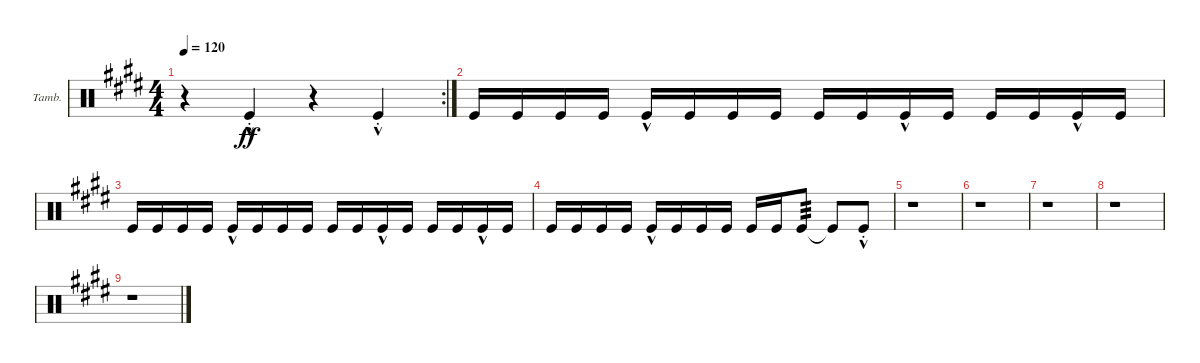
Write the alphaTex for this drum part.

\defaultSystemsLayout 4
\bracketExtendMode groupsimilarinstruments
\firstSystemTrackNameOrientation horizontal
\otherSystemsTrackNameOrientation horizontal
\track ("Tambourine" "Tamb.") {instrument percussion}
\staff {score}
\articulation defaults
\rc 2
\ts (4 4)
\tempo 120
\clef neutral
\scale
0.355932
\ks e
r.4{dy ff} "Kick (hit)"{hac st}.4 r.4 "Kick (hit)"{hac st}.4 |
\scale
0.322034 "Kick (hit)".16 "Kick (hit)".16 "Kick (hit)".16 "Kick (hit)".16 "Kick (hit)"{hac}.16 "Kick (hit)".16 "Kick (hit)".16 "Kick (hit)".16 "Kick (hit)".16 "Kick (hit)".16 "Kick (hit)"{hac}.16 "Kick (hit)".16 "Kick (hit)".16 "Kick (hit)".16 "Kick (hit)"{hac}.16 "Kick (hit)".16 |
\scale
0.333333 "Kick (hit)".16 "Kick (hit)".16 "Kick (hit)".16 "Kick (hit)".16 "Kick (hit)"{hac}.16 "Kick (hit)".16 "Kick (hit)".16 "Kick (hit)".16 "Kick (hit)".16 "Kick (hit)".16 "Kick (hit)"{hac}.16 "Kick (hit)".16 "Kick (hit)".16 "Kick (hit)".16 "Kick (hit)"{hac}.16 "Kick (hit)".16 |
\scale
0.333333 "Kick (hit)".16 "Kick (hit)".16 "Kick (hit)".16 "Kick (hit)".16 "Kick (hit)"{hac}.16 "Kick (hit)".16 "Kick (hit)".16 "Kick (hit)".16 "Kick (hit)".16 "Kick (hit)".16 "Kick (hit)".8{tp 3} "Kick (hit)"{t}.8 "Kick (hit)"{hac st}.8 |
\scale
0.333333 r.1 |
\scale
0.333333 r.1 |
\scale
0.333333 r.1 |
\scale
0.333333 r.1 |
r.1
